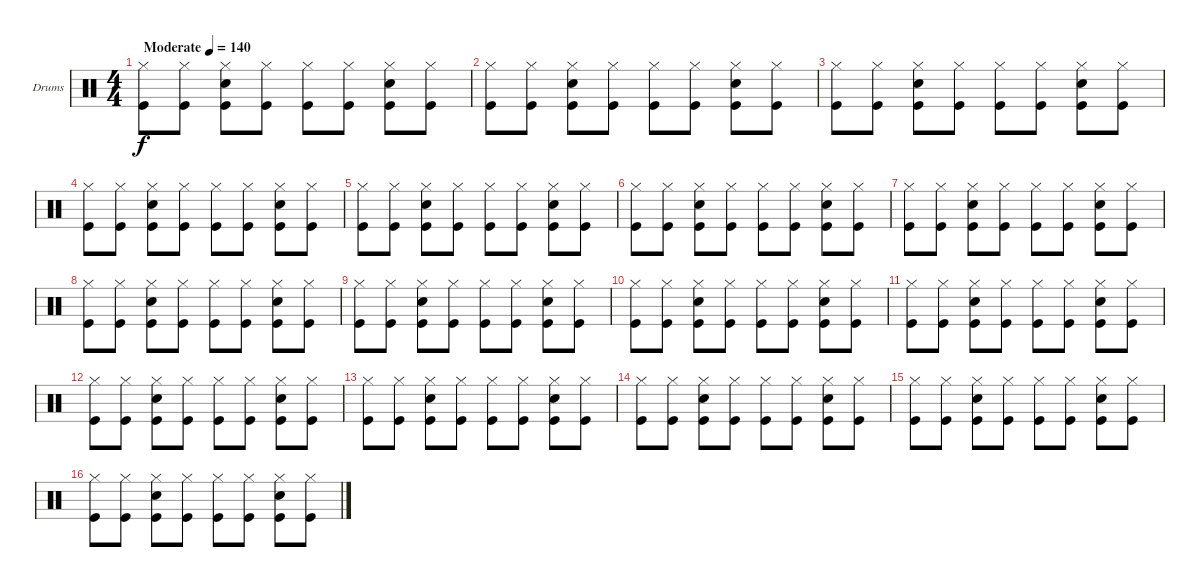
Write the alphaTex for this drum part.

\bracketExtendMode groupsimilarinstruments
\firstSystemTrackNameOrientation horizontal
\otherSystemsTrackNameOrientation horizontal
\track ("Peter Ulrich (Drums)" "Drums") {instrument percussion}
\staff {score}
\articulation defaults
\ts (4 4)
\beaming (8 2 2 2 2)
\tempo (140 "Moderate")
\clef neutral
\ks c
("Hi-Hat (closed)" "Kick (hit)").8{dy f} ("Hi-Hat (closed)" "Kick (hit)").8 ("Hi-Hat (closed)" "Snare (hit) 2" "Kick (hit)").8 ("Hi-Hat (closed)" "Kick (hit)").8 ("Hi-Hat (closed)" "Kick (hit)").8 ("Hi-Hat (closed)" "Kick (hit)").8 ("Hi-Hat (closed)" "Snare (hit) 2" "Kick (hit)").8 ("Hi-Hat (closed)" "Kick (hit)").8 |
("Hi-Hat (closed)" "Kick (hit)").8 ("Hi-Hat (closed)" "Kick (hit)").8 ("Hi-Hat (closed)" "Snare (hit) 2" "Kick (hit)").8 ("Hi-Hat (closed)" "Kick (hit)").8 ("Hi-Hat (closed)" "Kick (hit)").8 ("Hi-Hat (closed)" "Kick (hit)").8 ("Hi-Hat (closed)" "Snare (hit) 2" "Kick (hit)").8 ("Hi-Hat (closed)" "Kick (hit)").8 |
("Hi-Hat (closed)" "Kick (hit)").8 ("Hi-Hat (closed)" "Kick (hit)").8 ("Hi-Hat (closed)" "Snare (hit) 2" "Kick (hit)").8 ("Hi-Hat (closed)" "Kick (hit)").8 ("Hi-Hat (closed)" "Kick (hit)").8 ("Hi-Hat (closed)" "Kick (hit)").8 ("Hi-Hat (closed)" "Snare (hit) 2" "Kick (hit)").8 ("Hi-Hat (closed)" "Kick (hit)").8 |
("Hi-Hat (closed)" "Kick (hit)").8 ("Hi-Hat (closed)" "Kick (hit)").8 ("Hi-Hat (closed)" "Snare (hit) 2" "Kick (hit)").8 ("Hi-Hat (closed)" "Kick (hit)").8 ("Hi-Hat (closed)" "Kick (hit)").8 ("Hi-Hat (closed)" "Kick (hit)").8 ("Hi-Hat (closed)" "Snare (hit) 2" "Kick (hit)").8 ("Hi-Hat (closed)" "Kick (hit)").8 |
("Hi-Hat (closed)" "Kick (hit)").8 ("Hi-Hat (closed)" "Kick (hit)").8 ("Hi-Hat (closed)" "Snare (hit) 2" "Kick (hit)").8 ("Hi-Hat (closed)" "Kick (hit)").8 ("Hi-Hat (closed)" "Kick (hit)").8 ("Hi-Hat (closed)" "Kick (hit)").8 ("Hi-Hat (closed)" "Snare (hit) 2" "Kick (hit)").8 ("Hi-Hat (closed)" "Kick (hit)").8 |
("Hi-Hat (closed)" "Kick (hit)").8 ("Hi-Hat (closed)" "Kick (hit)").8 ("Hi-Hat (closed)" "Snare (hit) 2" "Kick (hit)").8 ("Hi-Hat (closed)" "Kick (hit)").8 ("Hi-Hat (closed)" "Kick (hit)").8 ("Hi-Hat (closed)" "Kick (hit)").8 ("Hi-Hat (closed)" "Snare (hit) 2" "Kick (hit)").8 ("Hi-Hat (closed)" "Kick (hit)").8 |
("Hi-Hat (closed)" "Kick (hit)").8 ("Hi-Hat (closed)" "Kick (hit)").8 ("Hi-Hat (closed)" "Snare (hit) 2" "Kick (hit)").8 ("Hi-Hat (closed)" "Kick (hit)").8 ("Hi-Hat (closed)" "Kick (hit)").8 ("Hi-Hat (closed)" "Kick (hit)").8 ("Hi-Hat (closed)" "Snare (hit) 2" "Kick (hit)").8 ("Hi-Hat (closed)" "Kick (hit)").8 |
("Hi-Hat (closed)" "Kick (hit)").8 ("Hi-Hat (closed)" "Kick (hit)").8 ("Hi-Hat (closed)" "Snare (hit) 2" "Kick (hit)").8 ("Hi-Hat (closed)" "Kick (hit)").8 ("Hi-Hat (closed)" "Kick (hit)").8 ("Hi-Hat (closed)" "Kick (hit)").8 ("Hi-Hat (closed)" "Snare (hit) 2" "Kick (hit)").8 ("Hi-Hat (closed)" "Kick (hit)").8 |
("Hi-Hat (closed)" "Kick (hit)").8 ("Hi-Hat (closed)" "Kick (hit)").8 ("Hi-Hat (closed)" "Snare (hit) 2" "Kick (hit)").8 ("Hi-Hat (closed)" "Kick (hit)").8 ("Hi-Hat (closed)" "Kick (hit)").8 ("Hi-Hat (closed)" "Kick (hit)").8 ("Hi-Hat (closed)" "Snare (hit) 2" "Kick (hit)").8 ("Hi-Hat (closed)" "Kick (hit)").8 |
("Hi-Hat (closed)" "Kick (hit)").8 ("Hi-Hat (closed)" "Kick (hit)").8 ("Hi-Hat (closed)" "Snare (hit) 2" "Kick (hit)").8 ("Hi-Hat (closed)" "Kick (hit)").8 ("Hi-Hat (closed)" "Kick (hit)").8 ("Hi-Hat (closed)" "Kick (hit)").8 ("Hi-Hat (closed)" "Snare (hit) 2" "Kick (hit)").8 ("Hi-Hat (closed)" "Kick (hit)").8 |
("Hi-Hat (closed)" "Kick (hit)").8 ("Hi-Hat (closed)" "Kick (hit)").8 ("Hi-Hat (closed)" "Snare (hit) 2" "Kick (hit)").8 ("Hi-Hat (closed)" "Kick (hit)").8 ("Hi-Hat (closed)" "Kick (hit)").8 ("Hi-Hat (closed)" "Kick (hit)").8 ("Hi-Hat (closed)" "Snare (hit) 2" "Kick (hit)").8 ("Hi-Hat (closed)" "Kick (hit)").8 |
("Hi-Hat (closed)" "Kick (hit)").8 ("Hi-Hat (closed)" "Kick (hit)").8 ("Hi-Hat (closed)" "Snare (hit) 2" "Kick (hit)").8 ("Hi-Hat (closed)" "Kick (hit)").8 ("Hi-Hat (closed)" "Kick (hit)").8 ("Hi-Hat (closed)" "Kick (hit)").8 ("Hi-Hat (closed)" "Snare (hit) 2" "Kick (hit)").8 ("Hi-Hat (closed)" "Kick (hit)").8 |
("Hi-Hat (closed)" "Kick (hit)").8 ("Hi-Hat (closed)" "Kick (hit)").8 ("Hi-Hat (closed)" "Snare (hit) 2" "Kick (hit)").8 ("Hi-Hat (closed)" "Kick (hit)").8 ("Hi-Hat (closed)" "Kick (hit)").8 ("Hi-Hat (closed)" "Kick (hit)").8 ("Hi-Hat (closed)" "Snare (hit) 2" "Kick (hit)").8 ("Hi-Hat (closed)" "Kick (hit)").8 |
("Hi-Hat (closed)" "Kick (hit)").8 ("Hi-Hat (closed)" "Kick (hit)").8 ("Hi-Hat (closed)" "Snare (hit) 2" "Kick (hit)").8 ("Hi-Hat (closed)" "Kick (hit)").8 ("Hi-Hat (closed)" "Kick (hit)").8 ("Hi-Hat (closed)" "Kick (hit)").8 ("Hi-Hat (closed)" "Snare (hit) 2" "Kick (hit)").8 ("Hi-Hat (closed)" "Kick (hit)").8 |
("Hi-Hat (closed)" "Kick (hit)").8 ("Hi-Hat (closed)" "Kick (hit)").8 ("Hi-Hat (closed)" "Snare (hit) 2" "Kick (hit)").8 ("Hi-Hat (closed)" "Kick (hit)").8 ("Hi-Hat (closed)" "Kick (hit)").8 ("Hi-Hat (closed)" "Kick (hit)").8 ("Hi-Hat (closed)" "Snare (hit) 2" "Kick (hit)").8 ("Hi-Hat (closed)" "Kick (hit)").8 |
("Hi-Hat (closed)" "Kick (hit)").8 ("Hi-Hat (closed)" "Kick (hit)").8 ("Hi-Hat (closed)" "Snare (hit) 2" "Kick (hit)").8 ("Hi-Hat (closed)" "Kick (hit)").8 ("Hi-Hat (closed)" "Kick (hit)").8 ("Hi-Hat (closed)" "Kick (hit)").8 ("Hi-Hat (closed)" "Snare (hit) 2" "Kick (hit)").8 ("Hi-Hat (closed)" "Kick (hit)").8
